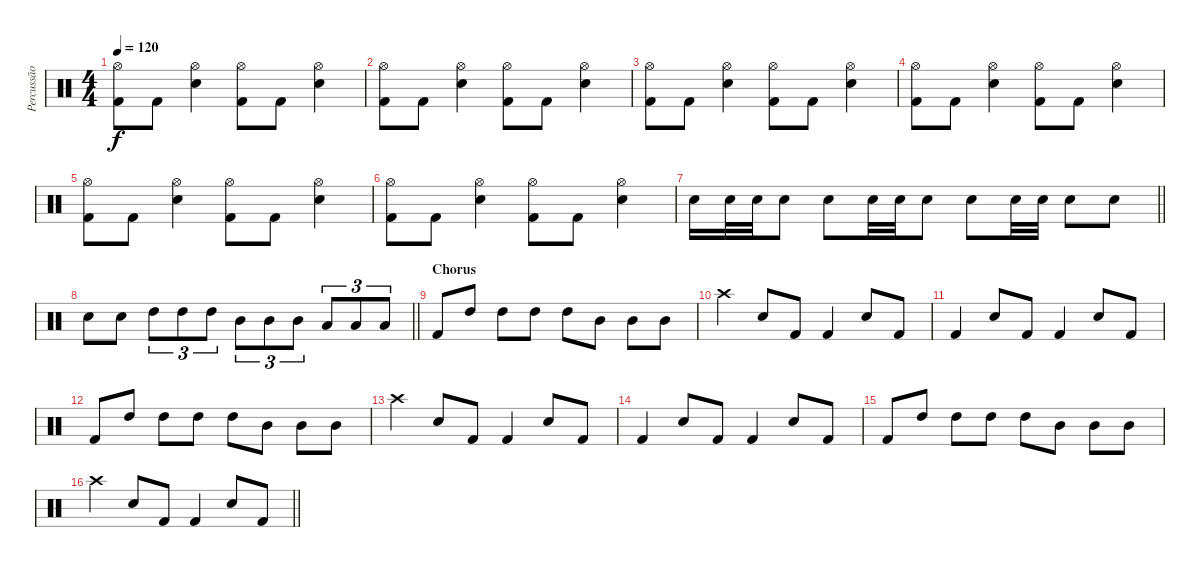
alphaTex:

\track ("Percussão" "Percussão") {instrument percussion}
\staff {score}
\articulation defaults
\ts (4 4)
\tempo 120
\clef neutral
\ks c
("Hi-Hat (open)" "Kick (hit) 2").8{dy f} "Kick (hit) 2".8 ("Hi-Hat (open)" "Snare (hit) 2").4 ("Hi-Hat (open)" "Kick (hit) 2").8 "Kick (hit) 2".8 ("Hi-Hat (open)" "Snare (hit) 2").4 |
("Hi-Hat (open)" "Kick (hit) 2").8 "Kick (hit) 2".8 ("Hi-Hat (open)" "Snare (hit) 2").4 ("Hi-Hat (open)" "Kick (hit) 2").8 "Kick (hit) 2".8 ("Hi-Hat (open)" "Snare (hit) 2").4 |
("Hi-Hat (open)" "Kick (hit) 2").8 "Kick (hit) 2".8 ("Hi-Hat (open)" "Snare (hit) 2").4 ("Hi-Hat (open)" "Kick (hit) 2").8 "Kick (hit) 2".8 ("Hi-Hat (open)" "Snare (hit) 2").4 |
("Hi-Hat (open)" "Kick (hit) 2").8 "Kick (hit) 2".8 ("Hi-Hat (open)" "Snare (hit) 2").4 ("Hi-Hat (open)" "Kick (hit) 2").8 "Kick (hit) 2".8 ("Hi-Hat (open)" "Snare (hit) 2").4 |
("Hi-Hat (open)" "Kick (hit) 2").8 "Kick (hit) 2".8 ("Hi-Hat (open)" "Snare (hit) 2").4 ("Hi-Hat (open)" "Kick (hit) 2").8 "Kick (hit) 2".8 ("Hi-Hat (open)" "Snare (hit) 2").4 |
("Hi-Hat (open)" "Kick (hit) 2").8 "Kick (hit) 2".8 ("Hi-Hat (open)" "Snare (hit) 2").4 ("Hi-Hat (open)" "Kick (hit) 2").8 "Kick (hit) 2".8 ("Hi-Hat (open)" "Snare (hit) 2").4 |
\barLineRight lightlight "Snare (hit) 2".16 "Snare (hit) 2".32 "Snare (hit) 2".32 "Snare (hit) 2".8 "Snare (hit) 2".8 "Snare (hit) 2".32 "Snare (hit) 2".32 "Snare (hit) 2".8 "Snare (hit) 2".8 "Snare (hit) 2".32 "Snare (hit) 2".32 "Snare (hit) 2".8 "Snare (hit) 2".8
|
\barLineRight lightlight "Snare (hit) 2".8 "Snare (hit) 2".8 "High Tom (hit)".8{tu (3 2)} "High Tom (hit)".8{tu (3 2)} "High Tom (hit)".8{tu (3 2)} "Mid Tom (hit)".8{tu (3 2)} "Mid Tom (hit)".8{tu (3 2)} "Mid Tom (hit)".8{tu (3 2)} "Low Tom (hit)".8{tu (3 2)} "Low Tom (hit)".8{tu (3 2)} "Low Tom (hit)".8{tu (3 2)}
|
\section ("" "Chorus")
"Kick (hit) 2".8 "High Tom (hit)".8 "High Tom (hit)".8 "High Tom (hit)".8 "High Tom (hit)".8 "Mid Tom (hit)".8 "Mid Tom (hit)".8 "Mid Tom (hit)".8 |
"Crash high (hit)".4 "Snare (hit) 2".8 "Kick (hit) 2".8 "Kick (hit) 2".4 "Snare (hit) 2".8 "Kick (hit) 2".8 |
"Kick (hit) 2".4 "Snare (hit) 2".8 "Kick (hit) 2".8 "Kick (hit) 2".4 "Snare (hit) 2".8 "Kick (hit) 2".8 |
"Kick (hit) 2".8 "High Tom (hit)".8 "High Tom (hit)".8 "High Tom (hit)".8 "High Tom (hit)".8 "Mid Tom (hit)".8 "Mid Tom (hit)".8 "Mid Tom (hit)".8 |
"Crash high (hit)".4 "Snare (hit) 2".8 "Kick (hit) 2".8 "Kick (hit) 2".4 "Snare (hit) 2".8 "Kick (hit) 2".8 |
"Kick (hit) 2".4 "Snare (hit) 2".8 "Kick (hit) 2".8 "Kick (hit) 2".4 "Snare (hit) 2".8 "Kick (hit) 2".8 |
"Kick (hit) 2".8 "High Tom (hit)".8 "High Tom (hit)".8 "High Tom (hit)".8 "High Tom (hit)".8 "Mid Tom (hit)".8 "Mid Tom (hit)".8 "Mid Tom (hit)".8 |
\barLineRight lightlight "Crash high (hit)".4 "Snare (hit) 2".8 "Kick (hit) 2".8 "Kick (hit) 2".4 "Snare (hit) 2".8 "Kick (hit) 2".8
